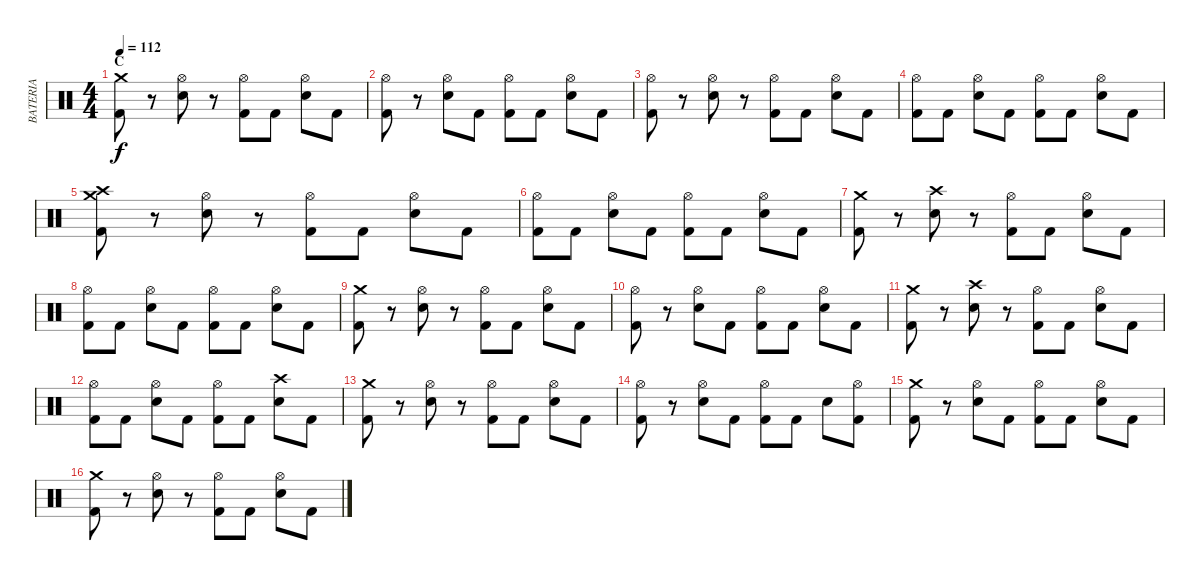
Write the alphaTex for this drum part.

\track ("BATERIA" "BATERIA") {instrument percussion}
\staff {score}
\articulation defaults
\ts (4 4)
\section ("" "C")
\tempo 112
\clef neutral
\ks c
("Kick (hit) 2" "Crash medium (hit)").8{dy f} r.8 ("Hi-Hat (open)" "Electric Snare (hit)").8 r.8 ("Kick (hit) 2" "Hi-Hat (open)").8 "Kick (hit) 2".8 ("Hi-Hat (open)" "Electric Snare (hit)").8 "Kick (hit) 2".8 |
("Kick (hit) 2" "Hi-Hat (open)").8 r.8 ("Hi-Hat (open)" "Electric Snare (hit)").8 "Kick (hit) 2".8 ("Kick (hit) 2" "Hi-Hat (open)").8 "Kick (hit) 2".8 ("Hi-Hat (open)" "Electric Snare (hit)").8 "Kick (hit) 2".8 |
("Kick (hit) 2" "Hi-Hat (open)").8 r.8 ("Hi-Hat (open)" "Electric Snare (hit)").8 r.8 ("Kick (hit) 2" "Hi-Hat (open)").8 "Kick (hit) 2".8 ("Hi-Hat (open)" "Electric Snare (hit)").8 "Kick (hit) 2".8 |
("Kick (hit) 2" "Hi-Hat (open)").8 "Kick (hit) 2".8 ("Hi-Hat (open)" "Electric Snare (hit)").8 "Kick (hit) 2".8 ("Kick (hit) 2" "Hi-Hat (open)").8 "Kick (hit) 2".8 ("Hi-Hat (open)" "Electric Snare (hit)").8 "Kick (hit) 2".8 |
("Kick (hit) 2" "Crash high (hit)" "Crash medium (hit)").8 r.8 ("Hi-Hat (open)" "Electric Snare (hit)").8 r.8 ("Kick (hit) 2" "Hi-Hat (open)").8 "Kick (hit) 2".8 ("Hi-Hat (open)" "Electric Snare (hit)").8 "Kick (hit) 2".8 |
("Kick (hit) 2" "Hi-Hat (open)").8 "Kick (hit) 2".8 ("Hi-Hat (open)" "Electric Snare (hit)").8 "Kick (hit) 2".8 ("Kick (hit) 2" "Hi-Hat (open)").8 "Kick (hit) 2".8 ("Hi-Hat (open)" "Electric Snare (hit)").8 "Kick (hit) 2".8 |
("Kick (hit) 2" "Crash medium (hit)").8 r.8 ("Electric Snare (hit)" "Crash high (hit)").8 r.8 ("Kick (hit) 2" "Hi-Hat (open)").8 "Kick (hit) 2".8 ("Hi-Hat (open)" "Electric Snare (hit)").8 "Kick (hit) 2".8 |
("Kick (hit) 2" "Hi-Hat (open)").8 "Kick (hit) 2".8 ("Hi-Hat (open)" "Electric Snare (hit)").8 "Kick (hit) 2".8 ("Kick (hit) 2" "Hi-Hat (open)").8 "Kick (hit) 2".8 ("Hi-Hat (open)" "Electric Snare (hit)").8 "Kick (hit) 2".8 |
("Kick (hit) 2" "Crash medium (hit)").8 r.8 ("Hi-Hat (open)" "Electric Snare (hit)").8 r.8 ("Kick (hit) 2" "Hi-Hat (open)").8 "Kick (hit) 2".8 ("Hi-Hat (open)" "Electric Snare (hit)").8 "Kick (hit) 2".8 |
("Kick (hit) 2" "Hi-Hat (open)").8 r.8 ("Hi-Hat (open)" "Electric Snare (hit)").8 "Kick (hit) 2".8 ("Kick (hit) 2" "Hi-Hat (open)").8 "Kick (hit) 2".8 ("Hi-Hat (open)" "Electric Snare (hit)").8 "Kick (hit) 2".8 |
("Kick (hit) 2" "Crash medium (hit)").8 r.8 ("Electric Snare (hit)" "Crash high (hit)").8 r.8 ("Kick (hit) 2" "Hi-Hat (open)").8 "Kick (hit) 2".8 ("Hi-Hat (open)" "Electric Snare (hit)").8 "Kick (hit) 2".8 |
("Kick (hit) 2" "Hi-Hat (open)").8 "Kick (hit) 2".8 ("Hi-Hat (open)" "Electric Snare (hit)").8 "Kick (hit) 2".8 ("Kick (hit) 2" "Hi-Hat (open)").8 "Kick (hit) 2".8 ("Electric Snare (hit)" "Crash high (hit)").8 "Kick (hit) 2".8 |
("Kick (hit) 2" "Crash medium (hit)").8 r.8 ("Hi-Hat (open)" "Electric Snare (hit)").8 r.8 ("Kick (hit) 2" "Hi-Hat (open)").8 "Kick (hit) 2".8 ("Hi-Hat (open)" "Electric Snare (hit)").8 "Kick (hit) 2".8 |
("Kick (hit) 2" "Hi-Hat (open)").8 r.8 ("Hi-Hat (open)" "Electric Snare (hit)").8 "Kick (hit) 2".8 ("Kick (hit) 2" "Hi-Hat (open)").8 "Kick (hit) 2".8 "Electric Snare (hit)".8 ("Kick (hit) 2" "Hi-Hat (open)").8 |
("Kick (hit) 2" "Crash medium (hit)").8 r.8 ("Hi-Hat (open)" "Electric Snare (hit)").8 "Kick (hit) 2".8 ("Kick (hit) 2" "Hi-Hat (open)").8 "Kick (hit) 2".8 ("Hi-Hat (open)" "Electric Snare (hit)").8 "Kick (hit) 2".8 |
("Kick (hit) 2" "Crash medium (hit)").8 r.8 ("Hi-Hat (open)" "Electric Snare (hit)").8 r.8 ("Kick (hit) 2" "Hi-Hat (open)").8 "Kick (hit) 2".8 ("Hi-Hat (open)" "Electric Snare (hit)").8 "Kick (hit) 2".8
